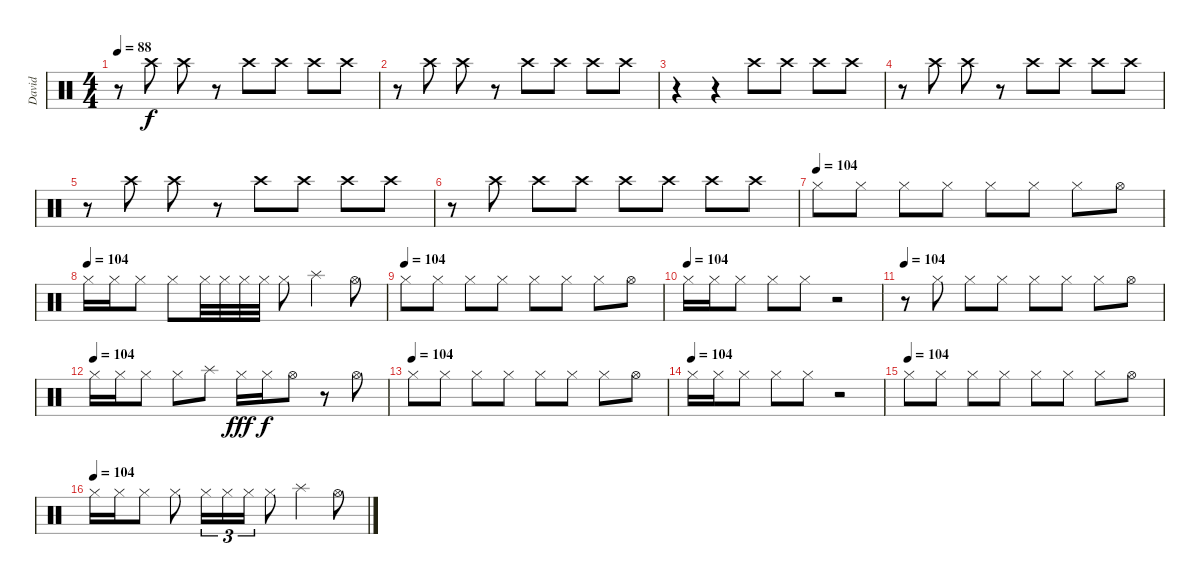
\track ("David" "David") {instrument percussion}
\staff {score}
\articulation defaults
\ts (4 4)
\tempo 88
\clef neutral
\ks c
r.8{dy f} "Crash high (hit)".8 "Crash high (hit)".8 r.8 "Crash high (hit)".8 "Crash high (hit)".8 "Crash high (hit)".8 "Crash high (hit)".8 |
r.8 "Crash high (hit)".8 "Crash high (hit)".8 r.8 "Crash high (hit)".8 "Crash high (hit)".8 "Crash high (hit)".8 "Crash high (hit)".8 |
r.4 r.4 "Crash high (hit)".8 "Crash high (hit)".8 "Crash high (hit)".8 "Crash high (hit)".8 |
r.8 "Crash high (hit)".8 "Crash high (hit)".8 r.8 "Crash high (hit)".8 "Crash high (hit)".8 "Crash high (hit)".8 "Crash high (hit)".8 |
r.8 "Crash high (hit)".8 "Crash high (hit)".8 r.8 "Crash high (hit)".8 "Crash high (hit)".8 "Crash high (hit)".8 "Crash high (hit)".8 |
r.8 "Crash high (hit)".8 "Crash high (hit)".8 "Crash high (hit)".8 "Crash high (hit)".8 "Crash high (hit)".8 "Crash high (hit)".8 "Crash high (hit)".8 |
\tempo (104)
"Hi-Hat (closed)".8 "Hi-Hat (closed)".8 "Hi-Hat (closed)".8 "Hi-Hat (closed)".8 "Hi-Hat (closed)".8 "Hi-Hat (closed)".8 "Hi-Hat (closed)".8 "Hi-Hat (open)".8 |
\tempo (104)
"Hi-Hat (closed)".16 "Hi-Hat (closed)".16 "Hi-Hat (closed)".8 "Hi-Hat (closed)".8 "Hi-Hat (closed)".32 "Hi-Hat (closed)".32 "Hi-Hat (closed)".32 "Hi-Hat (closed)".32 "Hi-Hat (closed)".8 "Splash (hit)".4 "Hi-Hat (open)".8 |
\tempo (104)
"Hi-Hat (closed)".8 "Hi-Hat (closed)".8 "Hi-Hat (closed)".8 "Hi-Hat (closed)".8 "Hi-Hat (closed)".8 "Hi-Hat (closed)".8 "Hi-Hat (closed)".8 "Hi-Hat (open)".8 |
\tempo (104)
"Hi-Hat (closed)".16 "Hi-Hat (closed)".16 "Hi-Hat (closed)".8 "Hi-Hat (closed)".8 "Hi-Hat (closed)".8 r.2 |
\tempo 104
r.8 "Hi-Hat (closed)".8 "Hi-Hat (closed)".8 "Hi-Hat (closed)".8 "Hi-Hat (closed)".8 "Hi-Hat (closed)".8 "Hi-Hat (closed)".8 "Hi-Hat (open)".8 |
\tempo (104)
"Hi-Hat (closed)".16 "Hi-Hat (closed)".16 "Hi-Hat (closed)".8 "Hi-Hat (closed)".8 "Splash (hit)".8 "Hi-Hat (closed)".16{dy fff} "Hi-Hat (closed)".16{dy f} "Hi-Hat (open)".8 r.8 "Hi-Hat (open)".8 |
\tempo (104)
"Hi-Hat (closed)".8 "Hi-Hat (closed)".8 "Hi-Hat (closed)".8 "Hi-Hat (closed)".8 "Hi-Hat (closed)".8 "Hi-Hat (closed)".8 "Hi-Hat (closed)".8 "Hi-Hat (open)".8 |
\tempo (104)
"Hi-Hat (closed)".16 "Hi-Hat (closed)".16 "Hi-Hat (closed)".8 "Hi-Hat (closed)".8 "Hi-Hat (closed)".8 r.2 |
\tempo (104)
"Hi-Hat (closed)".8 "Hi-Hat (closed)".8 "Hi-Hat (closed)".8 "Hi-Hat (closed)".8 "Hi-Hat (closed)".8 "Hi-Hat (closed)".8 "Hi-Hat (closed)".8 "Hi-Hat (open)".8 |
\tempo (104)
"Hi-Hat (closed)".16 "Hi-Hat (closed)".16 "Hi-Hat (closed)".8 "Hi-Hat (closed)".8 "Hi-Hat (closed)".16{tu (3 2)} "Hi-Hat (closed)".16{tu (3 2)} "Hi-Hat (closed)".16{tu (3 2)} "Hi-Hat (closed)".8 "Splash (hit)".4 "Hi-Hat (open)".8
